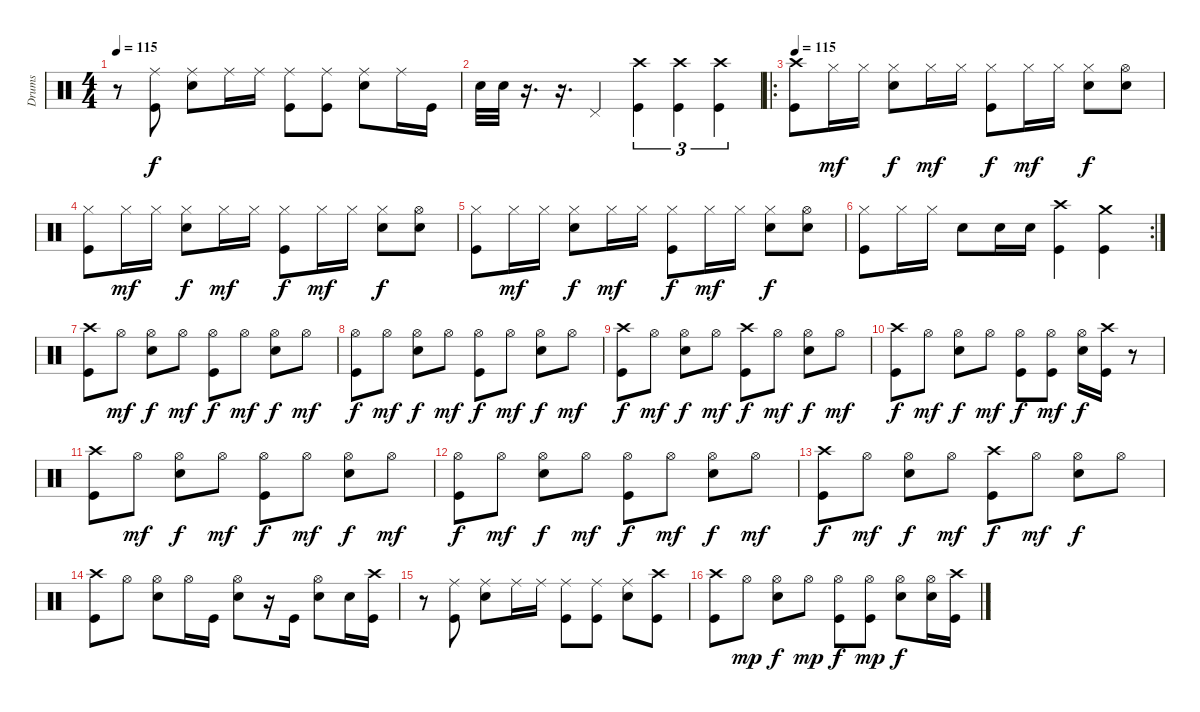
\track ("Drums" "Drums") {instrument percussion}
\staff {score}
\articulation defaults
\ts (4 4)
\tempo 115
\clef neutral
\ks c
r.8{dy f} ("Ride (middle)" "Kick (hit)").8 ("Ride (middle)" "Snare (hit) 2").8 "Ride (middle)".16 "Ride (middle)".16 ("Ride (middle)" "Kick (hit)").8 ("Ride (middle)" "Kick (hit)").8 ("Ride (middle)" "Snare (hit) 2").8 "Ride (middle)".16 "Kick (hit)".16 |
"Snare (hit) 2".32 "Snare (hit) 2".32 r.16{d} r.16{d} "Pedal Hi-Hat (hit)".4 ("Crash high (hit)" "Kick (hit)").4{tu (3 2)} ("Crash high (hit)" "Kick (hit)").4{tu (3 2)} ("Crash high (hit)" "Kick (hit)").4{tu (3 2)} |
\ro
\tempo 115
("Crash high (hit)" "Kick (hit)").8 "Hi-Hat (closed)".16{dy mf} "Hi-Hat (closed)".16 ("Hi-Hat (closed)" "Snare (hit) 2").8{dy f} "Hi-Hat (closed)".16{dy mf} "Hi-Hat (closed)".16 ("Hi-Hat (closed)" "Kick (hit)").8{dy f} "Hi-Hat (closed)".16{dy mf} "Hi-Hat (closed)".16 ("Hi-Hat (closed)" "Snare (hit) 2").8{dy f} ("Hi-Hat (open)" "Snare (hit) 2").8 |
("Hi-Hat (closed)" "Kick (hit)").8 "Hi-Hat (closed)".16{dy mf} "Hi-Hat (closed)".16 ("Hi-Hat (closed)" "Snare (hit) 2").8{dy f} "Hi-Hat (closed)".16{dy mf} "Hi-Hat (closed)".16 ("Hi-Hat (closed)" "Kick (hit)").8{dy f} "Hi-Hat (closed)".16{dy mf} "Hi-Hat (closed)".16 ("Hi-Hat (closed)" "Snare (hit) 2").8{dy f} ("Hi-Hat (open)" "Snare (hit) 2").8 |
("Hi-Hat (closed)" "Kick (hit)").8 "Hi-Hat (closed)".16{dy mf} "Hi-Hat (closed)".16 ("Hi-Hat (closed)" "Snare (hit) 2").8{dy f} "Hi-Hat (closed)".16{dy mf} "Hi-Hat (closed)".16 ("Hi-Hat (closed)" "Kick (hit)").8{dy f} "Hi-Hat (closed)".16{dy mf} "Hi-Hat (closed)".16 ("Hi-Hat (closed)" "Snare (hit) 2").8{dy f} ("Hi-Hat (open)" "Snare (hit) 2").8 |
\rc 2
("Hi-Hat (closed)" "Kick (hit)").8 "Hi-Hat (closed)".16 "Hi-Hat (closed)".16 "Snare (hit) 2".8 "Snare (hit) 2".16 "Snare (hit) 2".16 ("Crash high (hit)" "Kick (hit)").4 ("Crash medium (hit)" "Kick (hit)").4 |
("Crash high (hit)" "Kick (hit)").8 "Hi-Hat (open)".8{dy mf} ("Hi-Hat (open)" "Snare (hit) 2").8{dy f} "Hi-Hat (open)".8{dy mf} ("Hi-Hat (open)" "Kick (hit)").8{dy f} "Hi-Hat (open)".8{dy mf} ("Hi-Hat (open)" "Snare (hit) 2").8{dy f} "Hi-Hat (open)".8{dy mf} |
("Hi-Hat (open)" "Kick (hit)").8{dy f} "Hi-Hat (open)".8{dy mf} ("Hi-Hat (open)" "Snare (hit) 2").8{dy f} "Hi-Hat (open)".8{dy mf} ("Hi-Hat (open)" "Kick (hit)").8{dy f} "Hi-Hat (open)".8{dy mf} ("Hi-Hat (open)" "Snare (hit) 2").8{dy f} "Hi-Hat (open)".8{dy mf} |
("Crash high (hit)" "Kick (hit)").8{dy f} "Hi-Hat (open)".8{dy mf} ("Hi-Hat (open)" "Snare (hit) 2").8{dy f} "Hi-Hat (open)".8{dy mf} ("Crash high (hit)" "Kick (hit)").8{dy f} "Hi-Hat (open)".8{dy mf} ("Hi-Hat (open)" "Snare (hit) 2").8{dy f} "Hi-Hat (open)".8{dy mf} |
("Crash high (hit)" "Kick (hit)").8{dy f} "Hi-Hat (open)".8{dy mf} ("Hi-Hat (open)" "Snare (hit) 2").8{dy f} "Hi-Hat (open)".8{dy mf} ("Hi-Hat (open)" "Kick (hit)").8{dy f} ("Hi-Hat (open)" "Kick (hit)").8{dy mf} ("Hi-Hat (open)" "Snare (hit) 2").16{dy f} ("Crash high (hit)" "Kick (hit)").16 r.8 |
("Crash high (hit)" "Kick (hit)").8 "Hi-Hat (open)".8{dy mf} ("Hi-Hat (open)" "Snare (hit) 2").8{dy f} "Hi-Hat (open)".8{dy mf} ("Hi-Hat (open)" "Kick (hit)").8{dy f} "Hi-Hat (open)".8{dy mf} ("Hi-Hat (open)" "Snare (hit) 2").8{dy f} "Hi-Hat (open)".8{dy mf} |
("Hi-Hat (open)" "Kick (hit)").8{dy f} "Hi-Hat (open)".8{dy mf} ("Hi-Hat (open)" "Snare (hit) 2").8{dy f} "Hi-Hat (open)".8{dy mf} ("Hi-Hat (open)" "Kick (hit)").8{dy f} "Hi-Hat (open)".8{dy mf} ("Hi-Hat (open)" "Snare (hit) 2").8{dy f} "Hi-Hat (open)".8{dy mf} |
("Crash high (hit)" "Kick (hit)").8{dy f} "Hi-Hat (open)".8{dy mf} ("Hi-Hat (open)" "Snare (hit) 2").8{dy f} "Hi-Hat (open)".8{dy mf} ("Crash high (hit)" "Kick (hit)").8{dy f} "Hi-Hat (open)".8{dy mf} ("Hi-Hat (open)" "Snare (hit) 2").8{dy f} "Hi-Hat (open)".8 |
("Crash high (hit)" "Kick (hit)").8 "Hi-Hat (open)".8 ("Hi-Hat (open)" "Snare (hit) 2").8 "Hi-Hat (open)".16 "Kick (hit)".16 ("Hi-Hat (open)" "Snare (hit) 2").8 r.16 "Kick (hit)".16 ("Hi-Hat (open)" "Snare (hit) 2").8 "Snare (hit) 2".16 ("Crash high (hit)" "Kick (hit)").16 |
r.8 ("Ride (middle)" "Kick (hit)").8 ("Ride (middle)" "Snare (hit) 2").8 "Ride (middle)".16 "Ride (middle)".16 ("Ride (middle)" "Kick (hit)").8 ("Ride (middle)" "Kick (hit)").8 ("Ride (middle)" "Snare (hit) 2").8 ("Crash high (hit)" "Kick (hit)").8 |
("Crash high (hit)" "Kick (hit)").8 "Hi-Hat (open)".8{dy mp} ("Hi-Hat (open)" "Snare (hit) 2").8{dy f} "Hi-Hat (open)".8{dy mp} ("Hi-Hat (open)" "Kick (hit)").8{dy f} ("Hi-Hat (open)" "Kick (hit)").8{dy mp} ("Hi-Hat (open)" "Snare (hit) 2").8{dy f} ("Hi-Hat (open)" "Snare (hit) 2").16 ("Crash high (hit)" "Kick (hit)").16
